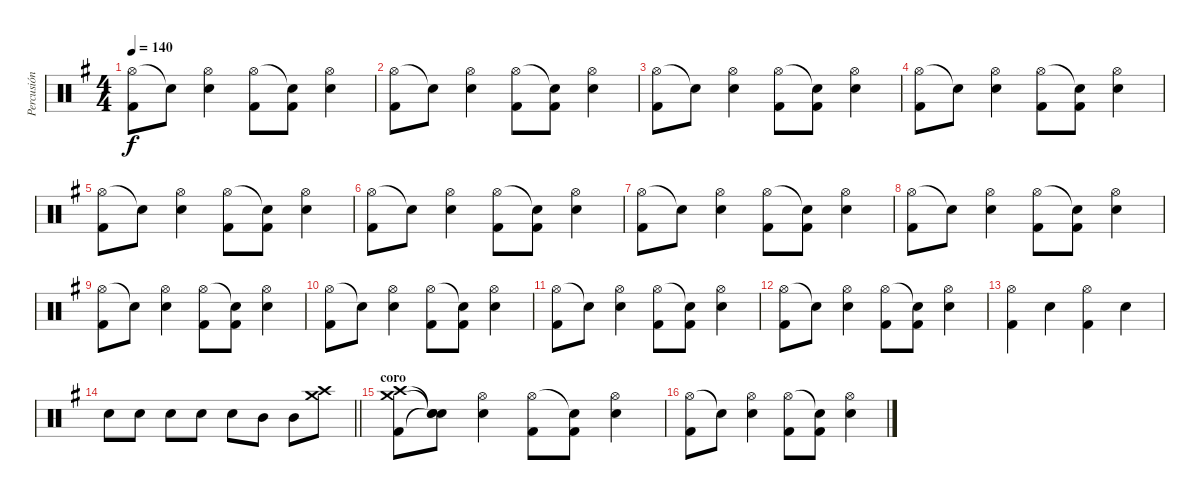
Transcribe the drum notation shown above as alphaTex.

\track ("Percusión" "Percusión") {instrument percussion}
\staff {score}
\articulation defaults
\ts (4 4)
\tempo 140
\clef neutral
\ks g
("Hi-Hat (open)" "Kick (hit) 2").8{dy f} "Snare (hit)"{t}.8 ("Hi-Hat (open)" "Electric Snare (hit)").4 ("Hi-Hat (open)" "Kick (hit) 2").8 ("Snare (hit)"{t} "Kick (hit) 2").8 ("Hi-Hat (open)" "Electric Snare (hit)").4 |
("Hi-Hat (open)" "Kick (hit) 2").8 "Snare (hit)"{t}.8 ("Hi-Hat (open)" "Electric Snare (hit)").4 ("Hi-Hat (open)" "Kick (hit) 2").8 ("Snare (hit)"{t} "Kick (hit) 2").8 ("Hi-Hat (open)" "Electric Snare (hit)").4 |
("Hi-Hat (open)" "Kick (hit) 2").8 "Snare (hit)"{t}.8 ("Hi-Hat (open)" "Electric Snare (hit)").4 ("Hi-Hat (open)" "Kick (hit) 2").8 ("Snare (hit)"{t} "Kick (hit) 2").8 ("Hi-Hat (open)" "Electric Snare (hit)").4 |
("Hi-Hat (open)" "Kick (hit) 2").8 "Snare (hit)"{t}.8 ("Hi-Hat (open)" "Electric Snare (hit)").4 ("Hi-Hat (open)" "Kick (hit) 2").8 ("Snare (hit)"{t} "Kick (hit) 2").8 ("Hi-Hat (open)" "Electric Snare (hit)").4 |
("Hi-Hat (open)" "Kick (hit) 2").8 "Snare (hit)"{t}.8 ("Hi-Hat (open)" "Electric Snare (hit)").4 ("Hi-Hat (open)" "Kick (hit) 2").8 ("Snare (hit)"{t} "Kick (hit) 2").8 ("Hi-Hat (open)" "Electric Snare (hit)").4 |
("Hi-Hat (open)" "Kick (hit) 2").8 "Snare (hit)"{t}.8 ("Hi-Hat (open)" "Electric Snare (hit)").4 ("Hi-Hat (open)" "Kick (hit) 2").8 ("Snare (hit)"{t} "Kick (hit) 2").8 ("Hi-Hat (open)" "Electric Snare (hit)").4 |
("Hi-Hat (open)" "Kick (hit) 2").8 "Snare (hit)"{t}.8 ("Hi-Hat (open)" "Electric Snare (hit)").4 ("Hi-Hat (open)" "Kick (hit) 2").8 ("Snare (hit)"{t} "Kick (hit) 2").8 ("Hi-Hat (open)" "Electric Snare (hit)").4 |
("Hi-Hat (open)" "Kick (hit) 2").8 "Snare (hit)"{t}.8 ("Hi-Hat (open)" "Electric Snare (hit)").4 ("Hi-Hat (open)" "Kick (hit) 2").8 ("Snare (hit)"{t} "Kick (hit) 2").8 ("Hi-Hat (open)" "Electric Snare (hit)").4 |
("Hi-Hat (open)" "Kick (hit) 2").8 "Snare (hit)"{t}.8 ("Hi-Hat (open)" "Electric Snare (hit)").4 ("Hi-Hat (open)" "Kick (hit) 2").8 ("Snare (hit)"{t} "Kick (hit) 2").8 ("Hi-Hat (open)" "Electric Snare (hit)").4 |
("Hi-Hat (open)" "Kick (hit) 2").8 "Snare (hit)"{t}.8 ("Hi-Hat (open)" "Electric Snare (hit)").4 ("Hi-Hat (open)" "Kick (hit) 2").8 ("Snare (hit)"{t} "Kick (hit) 2").8 ("Hi-Hat (open)" "Electric Snare (hit)").4 |
("Hi-Hat (open)" "Kick (hit) 2").8 "Snare (hit)"{t}.8 ("Hi-Hat (open)" "Electric Snare (hit)").4 ("Hi-Hat (open)" "Kick (hit) 2").8 ("Snare (hit)"{t} "Kick (hit) 2").8 ("Hi-Hat (open)" "Electric Snare (hit)").4 |
("Hi-Hat (open)" "Kick (hit) 2").8 "Snare (hit)"{t}.8 ("Hi-Hat (open)" "Electric Snare (hit)").4 ("Hi-Hat (open)" "Kick (hit) 2").8 ("Snare (hit)"{t} "Kick (hit) 2").8 ("Hi-Hat (open)" "Electric Snare (hit)").4 |
("Hi-Hat (open)" "Kick (hit) 2").4 "Electric Snare (hit)".4 ("Hi-Hat (open)" "Kick (hit) 2").4 "Electric Snare (hit)".4 |
\barLineRight lightlight "Electric Snare (hit)".8 "Electric Snare (hit)".8 "Electric Snare (hit)".8 "Electric Snare (hit)".8 "Electric Snare (hit)".8 "Mid Tom (hit)".8 "Mid Tom (hit)".8
("Crash medium (hit)" "Crash high (hit)").8 |
\section ("" "coro")
("Crash medium (hit)" "Crash high (hit)" "Kick (hit) 2").8 ("Snare (hit)"{t} "Snare (hit)"{t} "Snare (hit)"{t}).8 ("Hi-Hat (open)" "Electric Snare (hit)").4 ("Hi-Hat (open)" "Kick (hit) 2").8 ("Snare (hit)"{t} "Kick (hit) 2").8 ("Hi-Hat (open)" "Electric Snare (hit)").4 |
("Hi-Hat (open)" "Kick (hit) 2").8 "Snare (hit)"{t}.8 ("Hi-Hat (open)" "Electric Snare (hit)").4 ("Hi-Hat (open)" "Kick (hit) 2").8 ("Snare (hit)"{t} "Kick (hit) 2").8 ("Hi-Hat (open)" "Electric Snare (hit)").4
